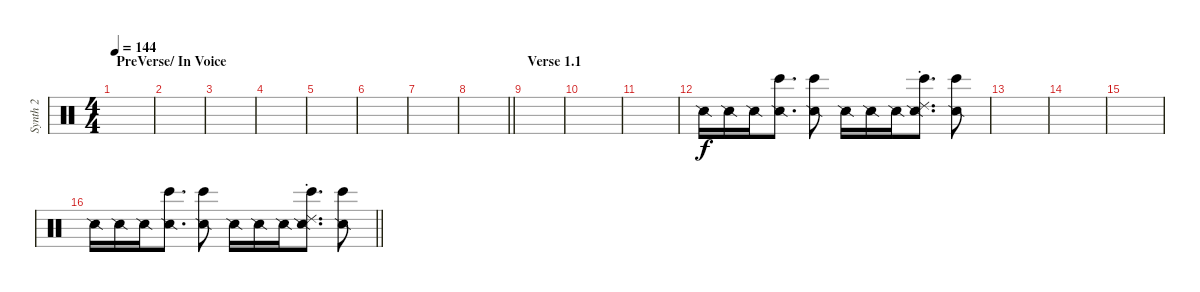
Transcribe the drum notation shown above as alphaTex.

\track ("Synth 2" "Synth 2") {instrument percussion}
\staff {score}
\articulation defaults
\ts (4 4)
\section ("" "PreVerse/ In Voice")
\tempo 144
\clef neutral
\ks c
|
|
|
|
|
|
|
\barLineRight lightlight
|
\section ("" "Verse 1.1")
|
|
|
"Snare (side stick) 2".16 "Snare (side stick) 2".16 "Snare (side stick) 2".16 ("Bongo High (hit)" "Snare (side stick) 2").8{d} ("Bongo High (hit)" "Snare (side stick) 2").8 "Snare (side stick) 2".16 "Snare (side stick) 2".16 "Snare (side stick) 2".16 ("Ride (choke) 2" "Bongo High (hit)" "Snare (side stick) 2").8{d} ("Bongo High (hit)" "Snare (side stick) 2").8 |
|
|
|
\barLineRight lightlight "Snare (side stick) 2".16 "Snare (side stick) 2".16 "Snare (side stick) 2".16
("Bongo High (hit)" "Snare (side stick) 2").8{d} ("Bongo High (hit)" "Snare (side stick) 2").8 "Snare (side stick) 2".16 "Snare (side stick) 2".16 "Snare (side stick) 2".16 ("Ride (choke) 2" "Bongo High (hit)" "Snare (side stick) 2").8{d} ("Bongo High (hit)" "Snare (side stick) 2").8
